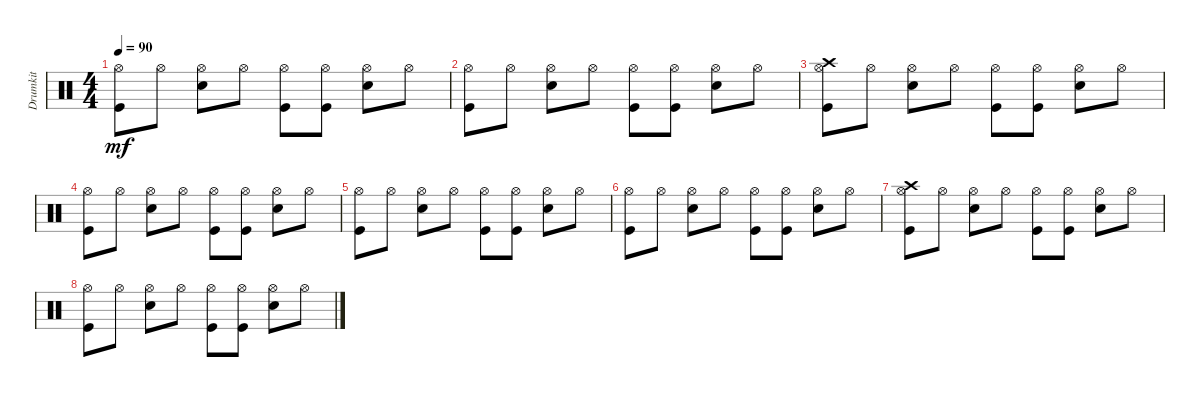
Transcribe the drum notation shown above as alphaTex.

\track ("Drumkit" "Drumkit") {instrument percussion}
\staff {score}
\articulation defaults
\ts (4 4)
\tempo 90
\clef neutral
\ks c
("Hi-Hat (open)" "Kick (hit)").8{dy mf} "Hi-Hat (open)".8 ("Hi-Hat (open)" "Snare (hit) 2").8 "Hi-Hat (open)".8 ("Hi-Hat (open)" "Kick (hit)").8 ("Hi-Hat (open)" "Kick (hit)").8 ("Hi-Hat (open)" "Snare (hit) 2").8 "Hi-Hat (open)".8 |
("Hi-Hat (open)" "Kick (hit)").8 "Hi-Hat (open)".8 ("Hi-Hat (open)" "Snare (hit) 2").8 "Hi-Hat (open)".8 ("Hi-Hat (open)" "Kick (hit)").8 ("Hi-Hat (open)" "Kick (hit)").8 ("Hi-Hat (open)" "Snare (hit) 2").8 "Hi-Hat (open)".8 |
("Crash high (hit)" "Hi-Hat (open)" "Kick (hit)").8 "Hi-Hat (open)".8 ("Hi-Hat (open)" "Snare (hit) 2").8 "Hi-Hat (open)".8 ("Hi-Hat (open)" "Kick (hit)").8 ("Hi-Hat (open)" "Kick (hit)").8 ("Hi-Hat (open)" "Snare (hit) 2").8 "Hi-Hat (open)".8 |
("Hi-Hat (open)" "Kick (hit)").8 "Hi-Hat (open)".8 ("Hi-Hat (open)" "Snare (hit) 2").8 "Hi-Hat (open)".8 ("Hi-Hat (open)" "Kick (hit)").8 ("Hi-Hat (open)" "Kick (hit)").8 ("Hi-Hat (open)" "Snare (hit) 2").8 "Hi-Hat (open)".8 |
("Hi-Hat (open)" "Kick (hit)").8 "Hi-Hat (open)".8 ("Hi-Hat (open)" "Snare (hit) 2").8 "Hi-Hat (open)".8 ("Hi-Hat (open)" "Kick (hit)").8 ("Hi-Hat (open)" "Kick (hit)").8 ("Hi-Hat (open)" "Snare (hit) 2").8 "Hi-Hat (open)".8 |
("Hi-Hat (open)" "Kick (hit)").8 "Hi-Hat (open)".8 ("Hi-Hat (open)" "Snare (hit) 2").8 "Hi-Hat (open)".8 ("Hi-Hat (open)" "Kick (hit)").8 ("Hi-Hat (open)" "Kick (hit)").8 ("Hi-Hat (open)" "Snare (hit) 2").8 "Hi-Hat (open)".8 |
("Crash high (hit)" "Hi-Hat (open)" "Kick (hit)").8 "Hi-Hat (open)".8 ("Hi-Hat (open)" "Snare (hit) 2").8 "Hi-Hat (open)".8 ("Hi-Hat (open)" "Kick (hit)").8 ("Hi-Hat (open)" "Kick (hit)").8 ("Hi-Hat (open)" "Snare (hit) 2").8 "Hi-Hat (open)".8 |
("Hi-Hat (open)" "Kick (hit)").8 "Hi-Hat (open)".8 ("Hi-Hat (open)" "Snare (hit) 2").8 "Hi-Hat (open)".8 ("Hi-Hat (open)" "Kick (hit)").8 ("Hi-Hat (open)" "Kick (hit)").8 ("Hi-Hat (open)" "Snare (hit) 2").8 "Hi-Hat (open)".8
